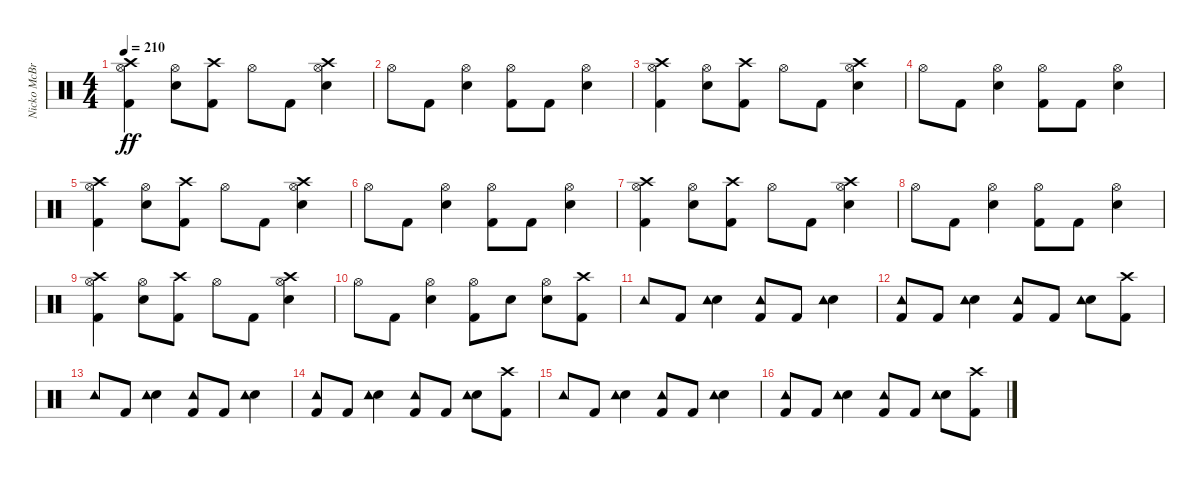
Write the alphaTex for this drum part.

\track ("Nicko McBrain" "Nicko McBr") {instrument percussion}
\staff {score}
\articulation defaults
\ts (4 4)
\tempo 210
\clef neutral
\ks c
("Kick (hit) 2" "Hi-Hat (open)" "Crash high (hit)").4{dy ff} ("Snare (hit) 2" "Hi-Hat (open)").8 ("Kick (hit) 2" "Crash high (hit)").8 "Hi-Hat (open)".8 "Kick (hit) 2".8 ("Snare (hit) 2" "Hi-Hat (open)" "Crash high (hit)").4 |
"Hi-Hat (open)".8 "Kick (hit) 2".8 ("Snare (hit) 2" "Hi-Hat (open)").4 ("Kick (hit) 2" "Hi-Hat (open)").8 "Kick (hit) 2".8 ("Snare (hit) 2" "Hi-Hat (open)").4 |
("Kick (hit) 2" "Hi-Hat (open)" "Crash high (hit)").4 ("Snare (hit) 2" "Hi-Hat (open)").8 ("Kick (hit) 2" "Crash high (hit)").8 "Hi-Hat (open)".8 "Kick (hit) 2".8 ("Snare (hit) 2" "Hi-Hat (open)" "Crash high (hit)").4 |
"Hi-Hat (open)".8 "Kick (hit) 2".8 ("Snare (hit) 2" "Hi-Hat (open)").4 ("Kick (hit) 2" "Hi-Hat (open)").8 "Kick (hit) 2".8 ("Snare (hit) 2" "Hi-Hat (open)").4 |
("Kick (hit) 2" "Hi-Hat (open)" "Crash high (hit)").4 ("Snare (hit) 2" "Hi-Hat (open)").8 ("Kick (hit) 2" "Crash high (hit)").8 "Hi-Hat (open)".8 "Kick (hit) 2".8 ("Snare (hit) 2" "Hi-Hat (open)" "Crash high (hit)").4 |
"Hi-Hat (open)".8 "Kick (hit) 2".8 ("Snare (hit) 2" "Hi-Hat (open)").4 ("Kick (hit) 2" "Hi-Hat (open)").8 "Kick (hit) 2".8 ("Snare (hit) 2" "Hi-Hat (open)").4 |
("Kick (hit) 2" "Hi-Hat (open)" "Crash high (hit)").4 ("Snare (hit) 2" "Hi-Hat (open)").8 ("Kick (hit) 2" "Crash high (hit)").8 "Hi-Hat (open)".8 "Kick (hit) 2".8 ("Snare (hit) 2" "Hi-Hat (open)" "Crash high (hit)").4 |
"Hi-Hat (open)".8 "Kick (hit) 2".8 ("Snare (hit) 2" "Hi-Hat (open)").4 ("Kick (hit) 2" "Hi-Hat (open)").8 "Kick (hit) 2".8 ("Snare (hit) 2" "Hi-Hat (open)").4 |
("Kick (hit) 2" "Hi-Hat (open)" "Crash high (hit)").4 ("Snare (hit) 2" "Hi-Hat (open)").8 ("Kick (hit) 2" "Crash high (hit)").8 "Hi-Hat (open)".8 "Kick (hit) 2".8 ("Snare (hit) 2" "Hi-Hat (open)" "Crash high (hit)").4 |
"Hi-Hat (open)".8 "Kick (hit) 2".8 ("Snare (hit) 2" "Hi-Hat (open)").4 ("Kick (hit) 2" "Hi-Hat (open)").8 "Snare (hit) 2".8 ("Snare (hit) 2" "Hi-Hat (open)").8 ("Kick (hit) 2" "Crash high (hit)").8 |
"Tambourine (hit)".8 "Kick (hit) 2".8 ("Snare (hit) 2" "Tambourine (hit)").4 ("Kick (hit) 2" "Tambourine (hit)").8 "Kick (hit) 2".8 ("Snare (hit) 2" "Tambourine (hit)").4 |
("Kick (hit) 2" "Tambourine (hit)").8 "Kick (hit) 2".8 ("Snare (hit) 2" "Tambourine (hit)").4 ("Kick (hit) 2" "Tambourine (hit)").8 "Kick (hit) 2".8 ("Snare (hit) 2" "Tambourine (hit)").8 ("Kick (hit) 2" "Crash high (hit)").8 |
"Tambourine (hit)".8 "Kick (hit) 2".8 ("Snare (hit) 2" "Tambourine (hit)").4 ("Kick (hit) 2" "Tambourine (hit)").8 "Kick (hit) 2".8 ("Snare (hit) 2" "Tambourine (hit)").4 |
("Kick (hit) 2" "Tambourine (hit)").8 "Kick (hit) 2".8 ("Snare (hit) 2" "Tambourine (hit)").4 ("Kick (hit) 2" "Tambourine (hit)").8 "Kick (hit) 2".8 ("Snare (hit) 2" "Tambourine (hit)").8 ("Kick (hit) 2" "Crash high (hit)").8 |
"Tambourine (hit)".8 "Kick (hit) 2".8 ("Snare (hit) 2" "Tambourine (hit)").4 ("Kick (hit) 2" "Tambourine (hit)").8 "Kick (hit) 2".8 ("Snare (hit) 2" "Tambourine (hit)").4 |
("Kick (hit) 2" "Tambourine (hit)").8 "Kick (hit) 2".8 ("Snare (hit) 2" "Tambourine (hit)").4 ("Kick (hit) 2" "Tambourine (hit)").8 "Kick (hit) 2".8 ("Snare (hit) 2" "Tambourine (hit)").8 ("Kick (hit) 2" "Crash high (hit)").8
